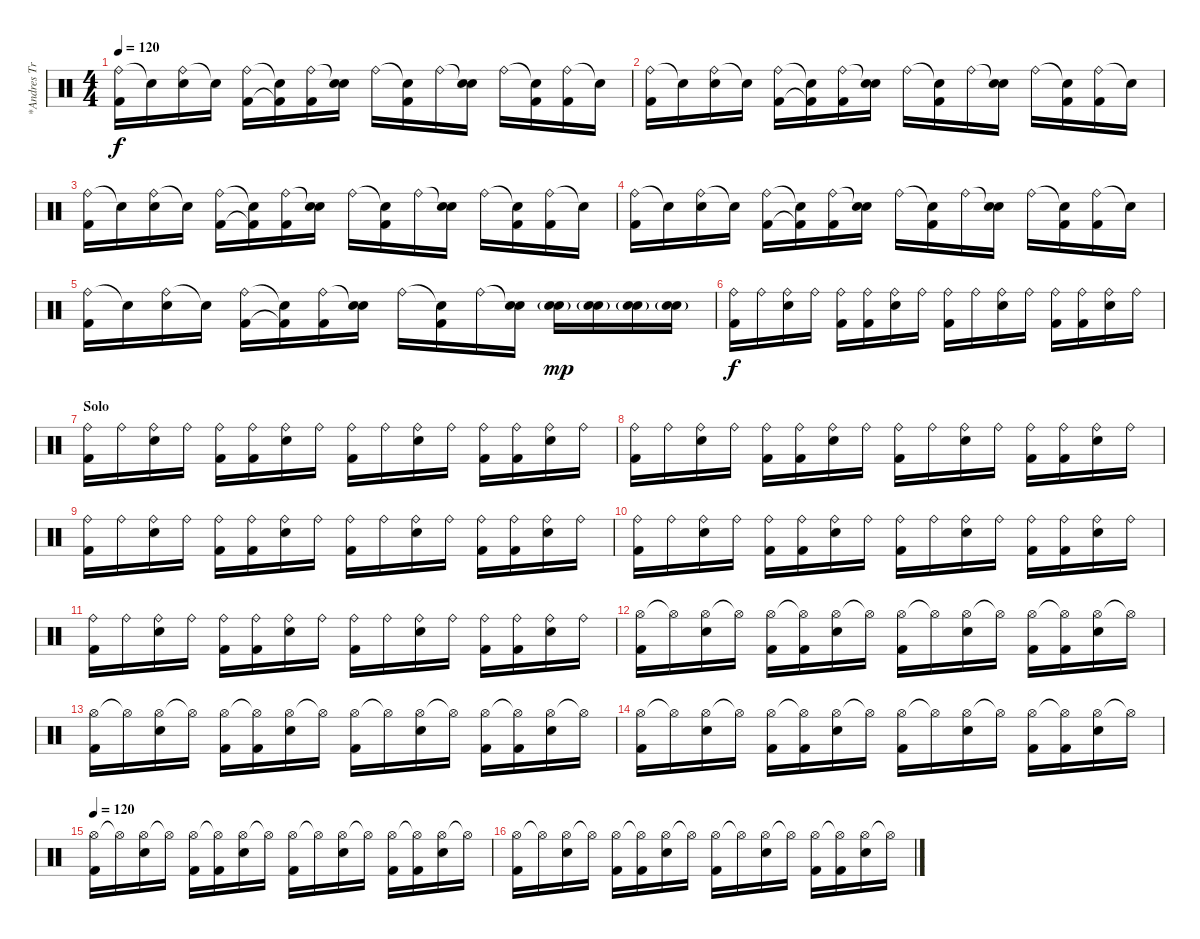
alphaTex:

\track ("*Andres Trujillo" "*Andres Tr") {instrument percussion}
\staff {score}
\articulation defaults
\ts (4 4)
\tempo 120
\clef neutral
\ks c
("Ride (bell)" "Kick (hit) 2").16{dy f} "Snare (hit)"{t}.16 ("Ride (bell)" "Electric Snare (hit)").16 "Snare (hit)"{t}.16 ("Ride (bell)" "Kick (hit) 2").16 ("Snare (hit)"{t} "Kick (hit) 2"{t}).16 ("Ride (bell)" "Kick (hit) 2").16 ("Snare (hit)"{t} "Electric Snare (hit)").16 "Ride (bell)".16 ("Snare (hit)"{t} "Kick (hit) 2").16 "Ride (bell)".16 ("Snare (hit)"{t} "Electric Snare (hit)").16 "Ride (bell)".16 ("Snare (hit)"{t} "Kick (hit) 2").16 ("Ride (bell)" "Kick (hit) 2").16 "Snare (hit)"{t}.16 |
("Ride (bell)" "Kick (hit) 2").16 "Snare (hit)"{t}.16 ("Ride (bell)" "Electric Snare (hit)").16 "Snare (hit)"{t}.16 ("Ride (bell)" "Kick (hit) 2").16 ("Snare (hit)"{t} "Kick (hit) 2"{t}).16 ("Ride (bell)" "Kick (hit) 2").16 ("Snare (hit)"{t} "Electric Snare (hit)").16 "Ride (bell)".16 ("Snare (hit)"{t} "Kick (hit) 2").16 "Ride (bell)".16 ("Snare (hit)"{t} "Electric Snare (hit)").16 "Ride (bell)".16 ("Snare (hit)"{t} "Kick (hit) 2").16 ("Ride (bell)" "Kick (hit) 2").16 "Snare (hit)"{t}.16 |
("Ride (bell)" "Kick (hit) 2").16 "Snare (hit)"{t}.16 ("Ride (bell)" "Electric Snare (hit)").16 "Snare (hit)"{t}.16 ("Ride (bell)" "Kick (hit) 2").16 ("Snare (hit)"{t} "Kick (hit) 2"{t}).16 ("Ride (bell)" "Kick (hit) 2").16 ("Snare (hit)"{t} "Electric Snare (hit)").16 "Ride (bell)".16 ("Snare (hit)"{t} "Kick (hit) 2").16 "Ride (bell)".16 ("Snare (hit)"{t} "Electric Snare (hit)").16 "Ride (bell)".16 ("Snare (hit)"{t} "Kick (hit) 2").16 ("Ride (bell)" "Kick (hit) 2").16 "Snare (hit)"{t}.16 |
("Ride (bell)" "Kick (hit) 2").16 "Snare (hit)"{t}.16 ("Ride (bell)" "Electric Snare (hit)").16 "Snare (hit)"{t}.16 ("Ride (bell)" "Kick (hit) 2").16 ("Snare (hit)"{t} "Kick (hit) 2"{t}).16 ("Ride (bell)" "Kick (hit) 2").16 ("Snare (hit)"{t} "Electric Snare (hit)").16 "Ride (bell)".16 ("Snare (hit)"{t} "Kick (hit) 2").16 "Ride (bell)".16 ("Snare (hit)"{t} "Electric Snare (hit)").16 "Ride (bell)".16 ("Snare (hit)"{t} "Kick (hit) 2").16 ("Ride (bell)" "Kick (hit) 2").16 "Snare (hit)"{t}.16 |
("Ride (bell)" "Kick (hit) 2").16 "Snare (hit)"{t}.16 ("Ride (bell)" "Electric Snare (hit)").16 "Snare (hit)"{t}.16 ("Ride (bell)" "Kick (hit) 2").16 ("Snare (hit)"{t} "Kick (hit) 2"{t}).16 ("Ride (bell)" "Kick (hit) 2").16 ("Snare (hit)"{t} "Electric Snare (hit)").16 "Ride (bell)".16 ("Snare (hit)"{t} "Kick (hit) 2").16 "Ride (bell)".16 ("Snare (hit)"{t} "Electric Snare (hit)").16 ("Electric Snare (hit)"{g} "Electric Snare (hit)").16{dy mp} ("Electric Snare (hit)"{g} "Electric Snare (hit)").16 ("Electric Snare (hit)"{g} "Electric Snare (hit)").16 ("Electric Snare (hit)"{g} "Electric Snare (hit)").16 |
("Ride (bell)" "Kick (hit) 2").16{dy f} "Ride (bell)".16 ("Ride (bell)" "Electric Snare (hit)").16 "Ride (bell)".16 ("Ride (bell)" "Kick (hit) 2").16 ("Ride (bell)" "Kick (hit) 2").16 ("Ride (bell)" "Electric Snare (hit)").16 "Ride (bell)".16 ("Ride (bell)" "Kick (hit) 2").16 "Ride (bell)".16 ("Ride (bell)" "Electric Snare (hit)").16 "Ride (bell)".16 ("Ride (bell)" "Kick (hit) 2").16 ("Ride (bell)" "Kick (hit) 2").16 ("Ride (bell)" "Electric Snare (hit)").16 "Ride (bell)".16 |
\section ("" "Solo")
("Ride (bell)" "Kick (hit) 2").16 "Ride (bell)".16 ("Ride (bell)" "Electric Snare (hit)").16 "Ride (bell)".16 ("Ride (bell)" "Kick (hit) 2").16 ("Ride (bell)" "Kick (hit) 2").16 ("Ride (bell)" "Electric Snare (hit)").16 "Ride (bell)".16 ("Ride (bell)" "Kick (hit) 2").16 "Ride (bell)".16 ("Ride (bell)" "Electric Snare (hit)").16 "Ride (bell)".16 ("Ride (bell)" "Kick (hit) 2").16 ("Ride (bell)" "Kick (hit) 2").16 ("Ride (bell)" "Electric Snare (hit)").16 "Ride (bell)".16 |
("Ride (bell)" "Kick (hit) 2").16 "Ride (bell)".16 ("Ride (bell)" "Electric Snare (hit)").16 "Ride (bell)".16 ("Ride (bell)" "Kick (hit) 2").16 ("Ride (bell)" "Kick (hit) 2").16 ("Ride (bell)" "Electric Snare (hit)").16 "Ride (bell)".16 ("Ride (bell)" "Kick (hit) 2").16 "Ride (bell)".16 ("Ride (bell)" "Electric Snare (hit)").16 "Ride (bell)".16 ("Ride (bell)" "Kick (hit) 2").16 ("Ride (bell)" "Kick (hit) 2").16 ("Ride (bell)" "Electric Snare (hit)").16 "Ride (bell)".16 |
("Ride (bell)" "Kick (hit) 2").16 "Ride (bell)".16 ("Ride (bell)" "Electric Snare (hit)").16 "Ride (bell)".16 ("Ride (bell)" "Kick (hit) 2").16 ("Ride (bell)" "Kick (hit) 2").16 ("Ride (bell)" "Electric Snare (hit)").16 "Ride (bell)".16 ("Ride (bell)" "Kick (hit) 2").16 "Ride (bell)".16 ("Ride (bell)" "Electric Snare (hit)").16 "Ride (bell)".16 ("Ride (bell)" "Kick (hit) 2").16 ("Ride (bell)" "Kick (hit) 2").16 ("Ride (bell)" "Electric Snare (hit)").16 "Ride (bell)".16 |
("Ride (bell)" "Kick (hit) 2").16 "Ride (bell)".16 ("Ride (bell)" "Electric Snare (hit)").16 "Ride (bell)".16 ("Ride (bell)" "Kick (hit) 2").16 ("Ride (bell)" "Kick (hit) 2").16 ("Ride (bell)" "Electric Snare (hit)").16 "Ride (bell)".16 ("Ride (bell)" "Kick (hit) 2").16 "Ride (bell)".16 ("Ride (bell)" "Electric Snare (hit)").16 "Ride (bell)".16 ("Ride (bell)" "Kick (hit) 2").16 ("Ride (bell)" "Kick (hit) 2").16 ("Ride (bell)" "Electric Snare (hit)").16 "Ride (bell)".16 |
("Ride (bell)" "Kick (hit) 2").16 "Ride (bell)".16 ("Ride (bell)" "Electric Snare (hit)").16 "Ride (bell)".16 ("Ride (bell)" "Kick (hit) 2").16 ("Ride (bell)" "Kick (hit) 2").16 ("Ride (bell)" "Electric Snare (hit)").16 "Ride (bell)".16 ("Ride (bell)" "Kick (hit) 2").16 "Ride (bell)".16 ("Ride (bell)" "Electric Snare (hit)").16 "Ride (bell)".16 ("Ride (bell)" "Kick (hit) 2").16 ("Ride (bell)" "Kick (hit) 2").16 ("Ride (bell)" "Electric Snare (hit)").16 "Ride (bell)".16 |
("Hi-Hat (open)" "Kick (hit) 2").16 "Hi-Hat (open)"{t}.16 ("Hi-Hat (open)" "Electric Snare (hit)").16 "Hi-Hat (open)"{t}.16 ("Hi-Hat (open)" "Kick (hit) 2").16 ("Hi-Hat (open)"{t} "Kick (hit) 2").16 ("Hi-Hat (open)" "Electric Snare (hit)").16 "Hi-Hat (open)"{t}.16 ("Hi-Hat (open)" "Kick (hit) 2").16 "Hi-Hat (open)"{t}.16 ("Hi-Hat (open)" "Electric Snare (hit)").16 "Hi-Hat (open)"{t}.16 ("Hi-Hat (open)" "Kick (hit) 2").16 ("Hi-Hat (open)"{t} "Kick (hit) 2").16 ("Hi-Hat (open)" "Electric Snare (hit)").16 "Hi-Hat (open)"{t}.16 |
("Hi-Hat (open)" "Kick (hit) 2").16 "Hi-Hat (open)"{t}.16 ("Hi-Hat (open)" "Electric Snare (hit)").16 "Hi-Hat (open)"{t}.16 ("Hi-Hat (open)" "Kick (hit) 2").16 ("Hi-Hat (open)"{t} "Kick (hit) 2").16 ("Hi-Hat (open)" "Electric Snare (hit)").16 "Hi-Hat (open)"{t}.16 ("Hi-Hat (open)" "Kick (hit) 2").16 "Hi-Hat (open)"{t}.16 ("Hi-Hat (open)" "Electric Snare (hit)").16 "Hi-Hat (open)"{t}.16 ("Hi-Hat (open)" "Kick (hit) 2").16 ("Hi-Hat (open)"{t} "Kick (hit) 2").16 ("Hi-Hat (open)" "Electric Snare (hit)").16 "Hi-Hat (open)"{t}.16 |
("Hi-Hat (open)" "Kick (hit) 2").16 "Hi-Hat (open)"{t}.16 ("Hi-Hat (open)" "Electric Snare (hit)").16 "Hi-Hat (open)"{t}.16 ("Hi-Hat (open)" "Kick (hit) 2").16 ("Hi-Hat (open)"{t} "Kick (hit) 2").16 ("Hi-Hat (open)" "Electric Snare (hit)").16 "Hi-Hat (open)"{t}.16 ("Hi-Hat (open)" "Kick (hit) 2").16 "Hi-Hat (open)"{t}.16 ("Hi-Hat (open)" "Electric Snare (hit)").16 "Hi-Hat (open)"{t}.16 ("Hi-Hat (open)" "Kick (hit) 2").16 ("Hi-Hat (open)"{t} "Kick (hit) 2").16 ("Hi-Hat (open)" "Electric Snare (hit)").16 "Hi-Hat (open)"{t}.16 |
\tempo 120
("Hi-Hat (open)" "Kick (hit) 2").16 "Hi-Hat (open)"{t}.16 ("Hi-Hat (open)" "Electric Snare (hit)").16 "Hi-Hat (open)"{t}.16 ("Hi-Hat (open)" "Kick (hit) 2").16 ("Hi-Hat (open)"{t} "Kick (hit) 2").16 ("Hi-Hat (open)" "Electric Snare (hit)").16 "Hi-Hat (open)"{t}.16 ("Hi-Hat (open)" "Kick (hit) 2").16 "Hi-Hat (open)"{t}.16 ("Hi-Hat (open)" "Electric Snare (hit)").16 "Hi-Hat (open)"{t}.16 ("Hi-Hat (open)" "Kick (hit) 2").16 ("Hi-Hat (open)"{t} "Kick (hit) 2").16 ("Hi-Hat (open)" "Electric Snare (hit)").16 "Hi-Hat (open)"{t}.16 |
("Hi-Hat (open)" "Kick (hit) 2").16 "Hi-Hat (open)"{t}.16 ("Hi-Hat (open)" "Electric Snare (hit)").16 "Hi-Hat (open)"{t}.16 ("Hi-Hat (open)" "Kick (hit) 2").16 ("Hi-Hat (open)"{t} "Kick (hit) 2").16 ("Hi-Hat (open)" "Electric Snare (hit)").16 "Hi-Hat (open)"{t}.16 ("Hi-Hat (open)" "Kick (hit) 2").16 "Hi-Hat (open)"{t}.16 ("Hi-Hat (open)" "Electric Snare (hit)").16 "Hi-Hat (open)"{t}.16 ("Hi-Hat (open)" "Kick (hit) 2").16 ("Hi-Hat (open)"{t} "Kick (hit) 2").16 ("Hi-Hat (open)" "Electric Snare (hit)").16 "Hi-Hat (open)"{t}.16
